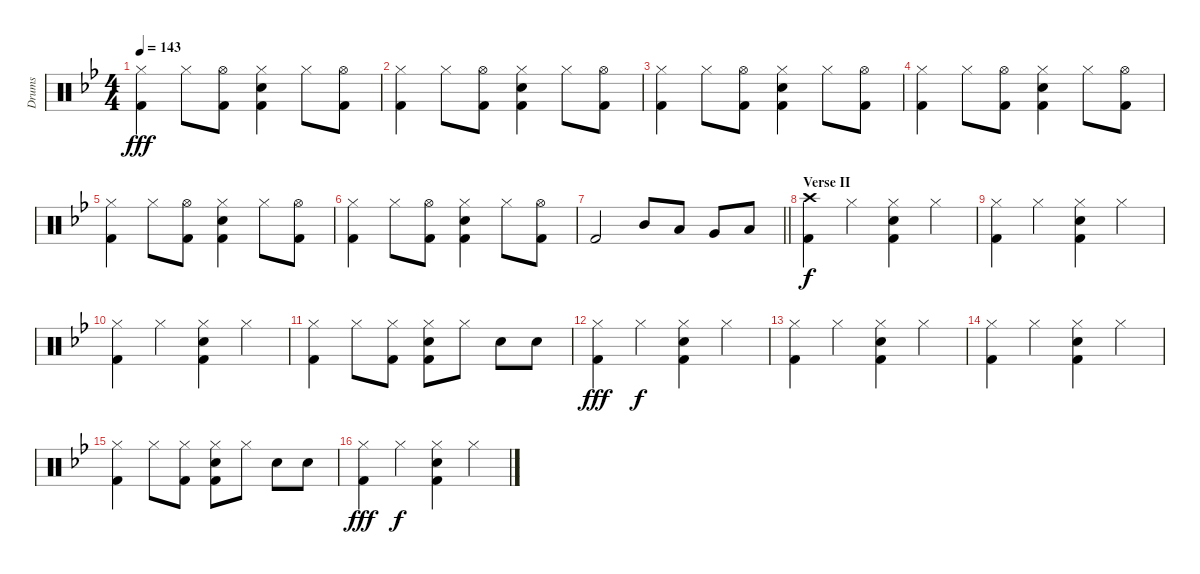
\track ("Drums" "Drums") {instrument percussion}
\staff {score}
\articulation defaults
\ts (4 4)
\tempo 143
\clef neutral
\ks bb
("Hi-Hat (closed)" "Kick (hit) 2").4{dy fff} "Hi-Hat (closed)".8 ("Hi-Hat (open)" "Kick (hit) 2").8 ("Hi-Hat (closed)" "Snare (hit) 2" "Kick (hit) 2").4 "Hi-Hat (closed)".8 ("Hi-Hat (open)" "Kick (hit) 2").8 |
("Hi-Hat (closed)" "Kick (hit) 2").4 "Hi-Hat (closed)".8 ("Hi-Hat (open)" "Kick (hit) 2").8 ("Hi-Hat (closed)" "Snare (hit) 2" "Kick (hit) 2").4 "Hi-Hat (closed)".8 ("Hi-Hat (open)" "Kick (hit) 2").8 |
("Hi-Hat (closed)" "Kick (hit) 2").4 "Hi-Hat (closed)".8 ("Hi-Hat (open)" "Kick (hit) 2").8 ("Hi-Hat (closed)" "Snare (hit) 2" "Kick (hit) 2").4 "Hi-Hat (closed)".8 ("Hi-Hat (open)" "Kick (hit) 2").8 |
("Hi-Hat (closed)" "Kick (hit) 2").4 "Hi-Hat (closed)".8 ("Hi-Hat (open)" "Kick (hit) 2").8 ("Hi-Hat (closed)" "Snare (hit) 2" "Kick (hit) 2").4 "Hi-Hat (closed)".8 ("Hi-Hat (open)" "Kick (hit) 2").8 |
("Hi-Hat (closed)" "Kick (hit) 2").4 "Hi-Hat (closed)".8 ("Hi-Hat (open)" "Kick (hit) 2").8 ("Hi-Hat (closed)" "Snare (hit) 2" "Kick (hit) 2").4 "Hi-Hat (closed)".8 ("Hi-Hat (open)" "Kick (hit) 2").8 |
("Hi-Hat (closed)" "Kick (hit) 2").4 "Hi-Hat (closed)".8 ("Hi-Hat (open)" "Kick (hit) 2").8 ("Hi-Hat (closed)" "Snare (hit) 2" "Kick (hit) 2").4 "Hi-Hat (closed)".8 ("Hi-Hat (open)" "Kick (hit) 2").8 |
\barLineRight lightlight "Kick (hit) 2".2 "Mid Tom (hit)".8 "Low Tom (hit)".8 "Very Low Tom (hit)".8 "Low Floor Tom (hit)".8
|
\section ("" "Verse II")
("Crash high (hit)" "Kick (hit) 2").4{dy f} "Hi-Hat (closed)".4 ("Hi-Hat (closed)" "Snare (hit) 2" "Kick (hit) 2").4 "Hi-Hat (closed)".4 |
("Hi-Hat (closed)" "Kick (hit) 2").4 "Hi-Hat (closed)".4 ("Hi-Hat (closed)" "Snare (hit) 2" "Kick (hit) 2").4 "Hi-Hat (closed)".4 |
("Hi-Hat (closed)" "Kick (hit) 2").4 "Hi-Hat (closed)".4 ("Hi-Hat (closed)" "Snare (hit) 2" "Kick (hit) 2").4 "Hi-Hat (closed)".4 |
("Hi-Hat (closed)" "Kick (hit) 2").4 "Hi-Hat (closed)".8 ("Hi-Hat (closed)" "Kick (hit) 2").8 ("Hi-Hat (closed)" "Snare (hit) 2" "Kick (hit) 2").8 "Hi-Hat (closed)".8 "Snare (hit) 2".8 "Snare (hit) 2".8 |
("Hi-Hat (closed)" "Kick (hit) 2").4{dy fff} "Hi-Hat (closed)".4{dy f} ("Hi-Hat (closed)" "Snare (hit) 2" "Kick (hit) 2").4 "Hi-Hat (closed)".4 |
("Hi-Hat (closed)" "Kick (hit) 2").4 "Hi-Hat (closed)".4 ("Hi-Hat (closed)" "Snare (hit) 2" "Kick (hit) 2").4 "Hi-Hat (closed)".4 |
("Hi-Hat (closed)" "Kick (hit) 2").4 "Hi-Hat (closed)".4 ("Hi-Hat (closed)" "Snare (hit) 2" "Kick (hit) 2").4 "Hi-Hat (closed)".4 |
("Hi-Hat (closed)" "Kick (hit) 2").4 "Hi-Hat (closed)".8 ("Hi-Hat (closed)" "Kick (hit) 2").8 ("Hi-Hat (closed)" "Snare (hit) 2" "Kick (hit) 2").8 "Hi-Hat (closed)".8 "Snare (hit) 2".8 "Snare (hit) 2".8 |
("Hi-Hat (closed)" "Kick (hit) 2").4{dy fff} "Hi-Hat (closed)".4{dy f} ("Hi-Hat (closed)" "Snare (hit) 2" "Kick (hit) 2").4 "Hi-Hat (closed)".4
